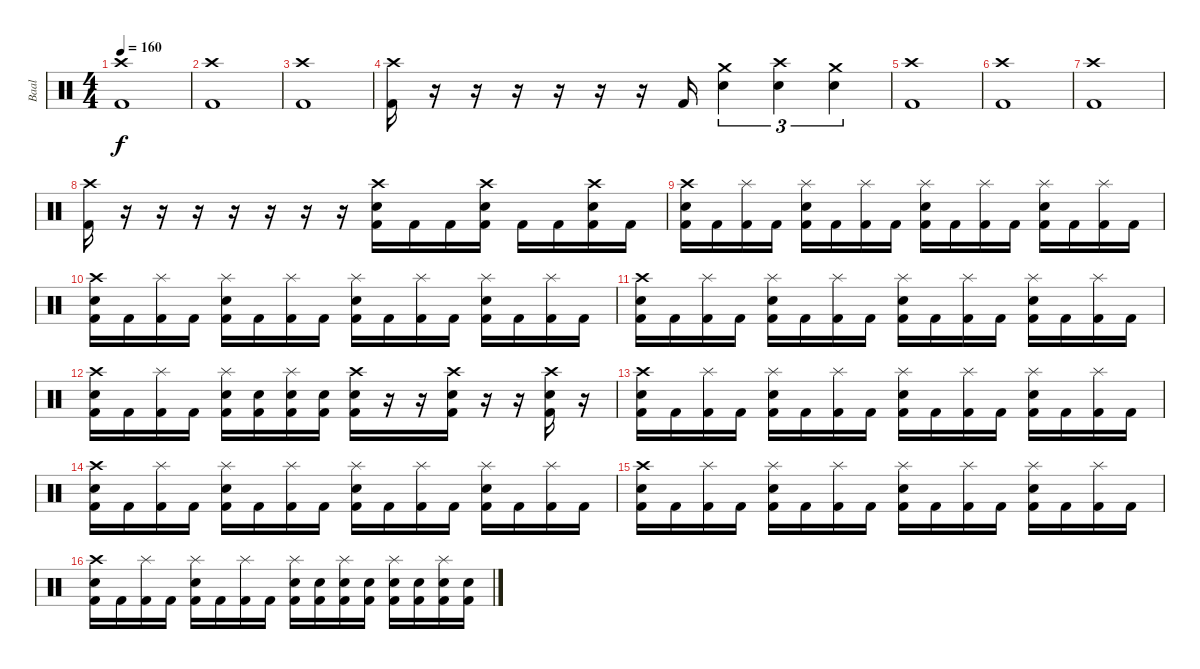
\track ("Baal" "Baal") {instrument percussion}
\staff {score}
\articulation defaults
\ts (4 4)
\tempo 160
\clef neutral
\ks c
("Crash high (hit)" "Kick (hit) 2").1{dy f} |
("Crash high (hit)" "Kick (hit) 2").1 |
("Crash high (hit)" "Kick (hit) 2").1 |
("Crash high (hit)" "Kick (hit) 2").16 r.16 r.16 r.16 r.16 r.16 r.16 "Kick (hit) 2".16 ("Crash medium (hit)" "Electric Snare (hit)").4{tu (3 2)} ("Crash high (hit)" "Electric Snare (hit)").4{tu (3 2)} ("Crash medium (hit)" "Electric Snare (hit)").4{tu (3 2)} |
("Crash high (hit)" "Kick (hit) 2").1 |
("Crash high (hit)" "Kick (hit) 2").1 |
("Crash high (hit)" "Kick (hit) 2").1 |
("Crash high (hit)" "Kick (hit) 2").16 r.16 r.16 r.16 r.16 r.16 r.16 r.16 ("Electric Snare (hit)" "Kick (hit) 2" "Crash high (hit)").16 "Kick (hit) 2".16 "Kick (hit) 2".16 ("Electric Snare (hit)" "Kick (hit) 2" "Crash high (hit)").16 "Kick (hit) 2".16 "Kick (hit) 2".16 ("Electric Snare (hit)" "Kick (hit) 2" "Crash high (hit)").16 "Kick (hit) 2".16 |
("Crash high (hit)" "Electric Snare (hit)" "Kick (hit) 2").16 "Kick (hit) 2".16 ("Splash (hit)" "Kick (hit) 2").16 "Kick (hit) 2".16 ("Splash (hit)" "Electric Snare (hit)" "Kick (hit) 2").16 "Kick (hit) 2".16 ("Splash (hit)" "Kick (hit) 2").16 "Kick (hit) 2".16 ("Splash (hit)" "Electric Snare (hit)" "Kick (hit) 2").16 "Kick (hit) 2".16 ("Splash (hit)" "Kick (hit) 2").16 "Kick (hit) 2".16 ("Splash (hit)" "Electric Snare (hit)" "Kick (hit) 2").16 "Kick (hit) 2".16 ("Splash (hit)" "Kick (hit) 2").16 "Kick (hit) 2".16 |
("Crash high (hit)" "Electric Snare (hit)" "Kick (hit) 2").16 "Kick (hit) 2".16 ("Splash (hit)" "Kick (hit) 2").16 "Kick (hit) 2".16 ("Splash (hit)" "Electric Snare (hit)" "Kick (hit) 2").16 "Kick (hit) 2".16 ("Splash (hit)" "Kick (hit) 2").16 "Kick (hit) 2".16 ("Splash (hit)" "Electric Snare (hit)" "Kick (hit) 2").16 "Kick (hit) 2".16 ("Splash (hit)" "Kick (hit) 2").16 "Kick (hit) 2".16 ("Splash (hit)" "Electric Snare (hit)" "Kick (hit) 2").16 "Kick (hit) 2".16 ("Splash (hit)" "Kick (hit) 2").16 "Kick (hit) 2".16 |
("Crash high (hit)" "Electric Snare (hit)" "Kick (hit) 2").16 "Kick (hit) 2".16 ("Splash (hit)" "Kick (hit) 2").16 "Kick (hit) 2".16 ("Splash (hit)" "Electric Snare (hit)" "Kick (hit) 2").16 "Kick (hit) 2".16 ("Splash (hit)" "Kick (hit) 2").16 "Kick (hit) 2".16 ("Splash (hit)" "Electric Snare (hit)" "Kick (hit) 2").16 "Kick (hit) 2".16 ("Splash (hit)" "Kick (hit) 2").16 "Kick (hit) 2".16 ("Splash (hit)" "Electric Snare (hit)" "Kick (hit) 2").16 "Kick (hit) 2".16 ("Splash (hit)" "Kick (hit) 2").16 "Kick (hit) 2".16 |
("Crash high (hit)" "Electric Snare (hit)" "Kick (hit) 2").16 "Kick (hit) 2".16 ("Splash (hit)" "Kick (hit) 2").16 "Kick (hit) 2".16 ("Splash (hit)" "Electric Snare (hit)" "Kick (hit) 2").16 ("Electric Snare (hit)" "Kick (hit) 2").16 ("Splash (hit)" "Electric Snare (hit)" "Kick (hit) 2").16 ("Electric Snare (hit)" "Kick (hit) 2").16 ("Crash high (hit)" "Electric Snare (hit)" "Kick (hit) 2").16 r.16 r.16 ("Crash high (hit)" "Electric Snare (hit)" "Kick (hit) 2").16 r.16 r.16 ("Crash high (hit)" "Electric Snare (hit)" "Kick (hit) 2").16 r.16 |
("Crash high (hit)" "Electric Snare (hit)" "Kick (hit) 2").16 "Kick (hit) 2".16 ("Splash (hit)" "Kick (hit) 2").16 "Kick (hit) 2".16 ("Splash (hit)" "Electric Snare (hit)" "Kick (hit) 2").16 "Kick (hit) 2".16 ("Splash (hit)" "Kick (hit) 2").16 "Kick (hit) 2".16 ("Splash (hit)" "Electric Snare (hit)" "Kick (hit) 2").16 "Kick (hit) 2".16 ("Splash (hit)" "Kick (hit) 2").16 "Kick (hit) 2".16 ("Splash (hit)" "Electric Snare (hit)" "Kick (hit) 2").16 "Kick (hit) 2".16 ("Splash (hit)" "Kick (hit) 2").16 "Kick (hit) 2".16 |
("Crash high (hit)" "Electric Snare (hit)" "Kick (hit) 2").16 "Kick (hit) 2".16 ("Splash (hit)" "Kick (hit) 2").16 "Kick (hit) 2".16 ("Splash (hit)" "Electric Snare (hit)" "Kick (hit) 2").16 "Kick (hit) 2".16 ("Splash (hit)" "Kick (hit) 2").16 "Kick (hit) 2".16 ("Splash (hit)" "Electric Snare (hit)" "Kick (hit) 2").16 "Kick (hit) 2".16 ("Splash (hit)" "Kick (hit) 2").16 "Kick (hit) 2".16 ("Splash (hit)" "Electric Snare (hit)" "Kick (hit) 2").16 "Kick (hit) 2".16 ("Splash (hit)" "Kick (hit) 2").16 "Kick (hit) 2".16 |
("Crash high (hit)" "Electric Snare (hit)" "Kick (hit) 2").16 "Kick (hit) 2".16 ("Splash (hit)" "Kick (hit) 2").16 "Kick (hit) 2".16 ("Splash (hit)" "Electric Snare (hit)" "Kick (hit) 2").16 "Kick (hit) 2".16 ("Splash (hit)" "Kick (hit) 2").16 "Kick (hit) 2".16 ("Splash (hit)" "Electric Snare (hit)" "Kick (hit) 2").16 "Kick (hit) 2".16 ("Splash (hit)" "Kick (hit) 2").16 "Kick (hit) 2".16 ("Splash (hit)" "Electric Snare (hit)" "Kick (hit) 2").16 "Kick (hit) 2".16 ("Splash (hit)" "Kick (hit) 2").16 "Kick (hit) 2".16 |
("Crash high (hit)" "Electric Snare (hit)" "Kick (hit) 2").16 "Kick (hit) 2".16 ("Splash (hit)" "Kick (hit) 2").16 "Kick (hit) 2".16 ("Splash (hit)" "Electric Snare (hit)" "Kick (hit) 2").16 "Kick (hit) 2".16 ("Splash (hit)" "Kick (hit) 2").16 "Kick (hit) 2".16 ("Splash (hit)" "Electric Snare (hit)" "Kick (hit) 2").16 ("Electric Snare (hit)" "Kick (hit) 2").16 ("Splash (hit)" "Electric Snare (hit)" "Kick (hit) 2").16 ("Electric Snare (hit)" "Kick (hit) 2").16 ("Splash (hit)" "Electric Snare (hit)" "Kick (hit) 2").16 ("Electric Snare (hit)" "Kick (hit) 2").16 ("Splash (hit)" "Electric Snare (hit)" "Kick (hit) 2").16 ("Electric Snare (hit)" "Kick (hit) 2").16
